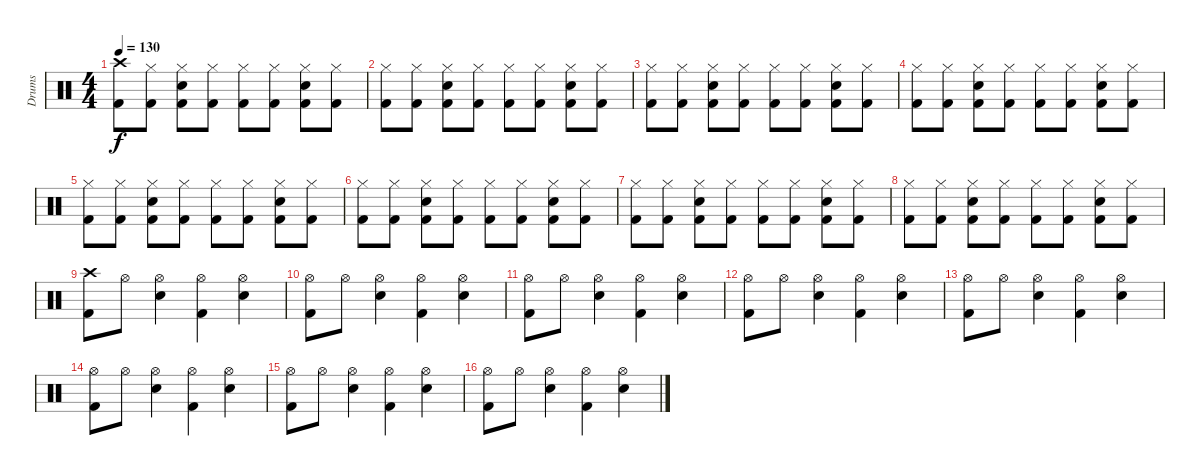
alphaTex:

\track ("Drums" "Drums") {instrument percussion}
\staff {score}
\articulation defaults
\ts (4 4)
\tempo 130
\clef neutral
\ks c
("Crash high (hit)" "Kick (hit) 2").8{dy f} ("Hi-Hat (closed)" "Kick (hit) 2").8 ("Hi-Hat (closed)" "Snare (hit) 2" "Kick (hit) 2").8 ("Hi-Hat (closed)" "Kick (hit) 2").8 ("Hi-Hat (closed)" "Kick (hit) 2").8 ("Hi-Hat (closed)" "Kick (hit) 2").8 ("Hi-Hat (closed)" "Snare (hit) 2" "Kick (hit) 2").8 ("Hi-Hat (closed)" "Kick (hit) 2").8 |
("Hi-Hat (closed)" "Kick (hit) 2").8 ("Hi-Hat (closed)" "Kick (hit) 2").8 ("Hi-Hat (closed)" "Snare (hit) 2" "Kick (hit) 2").8 ("Hi-Hat (closed)" "Kick (hit) 2").8 ("Hi-Hat (closed)" "Kick (hit) 2").8 ("Hi-Hat (closed)" "Kick (hit) 2").8 ("Hi-Hat (closed)" "Snare (hit) 2" "Kick (hit) 2").8 ("Hi-Hat (closed)" "Kick (hit) 2").8 |
("Hi-Hat (closed)" "Kick (hit) 2").8 ("Hi-Hat (closed)" "Kick (hit) 2").8 ("Hi-Hat (closed)" "Snare (hit) 2" "Kick (hit) 2").8 ("Hi-Hat (closed)" "Kick (hit) 2").8 ("Hi-Hat (closed)" "Kick (hit) 2").8 ("Hi-Hat (closed)" "Kick (hit) 2").8 ("Hi-Hat (closed)" "Snare (hit) 2" "Kick (hit) 2").8 ("Hi-Hat (closed)" "Kick (hit) 2").8 |
("Hi-Hat (closed)" "Kick (hit) 2").8 ("Hi-Hat (closed)" "Kick (hit) 2").8 ("Hi-Hat (closed)" "Snare (hit) 2" "Kick (hit) 2").8 ("Hi-Hat (closed)" "Kick (hit) 2").8 ("Hi-Hat (closed)" "Kick (hit) 2").8 ("Hi-Hat (closed)" "Kick (hit) 2").8 ("Hi-Hat (closed)" "Snare (hit) 2" "Kick (hit) 2").8 ("Hi-Hat (closed)" "Kick (hit) 2").8 |
("Hi-Hat (closed)" "Kick (hit) 2").8 ("Hi-Hat (closed)" "Kick (hit) 2").8 ("Hi-Hat (closed)" "Snare (hit) 2" "Kick (hit) 2").8 ("Hi-Hat (closed)" "Kick (hit) 2").8 ("Hi-Hat (closed)" "Kick (hit) 2").8 ("Hi-Hat (closed)" "Kick (hit) 2").8 ("Hi-Hat (closed)" "Snare (hit) 2" "Kick (hit) 2").8 ("Hi-Hat (closed)" "Kick (hit) 2").8 |
("Hi-Hat (closed)" "Kick (hit) 2").8 ("Hi-Hat (closed)" "Kick (hit) 2").8 ("Hi-Hat (closed)" "Snare (hit) 2" "Kick (hit) 2").8 ("Hi-Hat (closed)" "Kick (hit) 2").8 ("Hi-Hat (closed)" "Kick (hit) 2").8 ("Hi-Hat (closed)" "Kick (hit) 2").8 ("Hi-Hat (closed)" "Snare (hit) 2" "Kick (hit) 2").8 ("Hi-Hat (closed)" "Kick (hit) 2").8 |
("Hi-Hat (closed)" "Kick (hit) 2").8 ("Hi-Hat (closed)" "Kick (hit) 2").8 ("Hi-Hat (closed)" "Snare (hit) 2" "Kick (hit) 2").8 ("Hi-Hat (closed)" "Kick (hit) 2").8 ("Hi-Hat (closed)" "Kick (hit) 2").8 ("Hi-Hat (closed)" "Kick (hit) 2").8 ("Hi-Hat (closed)" "Snare (hit) 2" "Kick (hit) 2").8 ("Hi-Hat (closed)" "Kick (hit) 2").8 |
("Hi-Hat (closed)" "Kick (hit) 2").8 ("Hi-Hat (closed)" "Kick (hit) 2").8 ("Hi-Hat (closed)" "Snare (hit) 2" "Kick (hit) 2").8 ("Hi-Hat (closed)" "Kick (hit) 2").8 ("Hi-Hat (closed)" "Kick (hit) 2").8 ("Hi-Hat (closed)" "Kick (hit) 2").8 ("Hi-Hat (closed)" "Snare (hit) 2" "Kick (hit) 2").8 ("Hi-Hat (closed)" "Kick (hit) 2").8 |
("Crash high (hit)" "Kick (hit) 2").8 "Hi-Hat (open)".8 ("Hi-Hat (open)" "Snare (hit) 2").4 ("Hi-Hat (open)" "Kick (hit) 2").4 ("Hi-Hat (open)" "Snare (hit) 2").4 |
("Hi-Hat (open)" "Kick (hit) 2").8 "Hi-Hat (open)".8 ("Hi-Hat (open)" "Snare (hit) 2").4 ("Hi-Hat (open)" "Kick (hit) 2").4 ("Hi-Hat (open)" "Snare (hit) 2").4 |
("Hi-Hat (open)" "Kick (hit) 2").8 "Hi-Hat (open)".8 ("Hi-Hat (open)" "Snare (hit) 2").4 ("Hi-Hat (open)" "Kick (hit) 2").4 ("Hi-Hat (open)" "Snare (hit) 2").4 |
("Hi-Hat (open)" "Kick (hit) 2").8 "Hi-Hat (open)".8 ("Hi-Hat (open)" "Snare (hit) 2").4 ("Hi-Hat (open)" "Kick (hit) 2").4 ("Hi-Hat (open)" "Snare (hit) 2").4 |
("Hi-Hat (open)" "Kick (hit) 2").8 "Hi-Hat (open)".8 ("Hi-Hat (open)" "Snare (hit) 2").4 ("Hi-Hat (open)" "Kick (hit) 2").4 ("Hi-Hat (open)" "Snare (hit) 2").4 |
("Hi-Hat (open)" "Kick (hit) 2").8 "Hi-Hat (open)".8 ("Hi-Hat (open)" "Snare (hit) 2").4 ("Hi-Hat (open)" "Kick (hit) 2").4 ("Hi-Hat (open)" "Snare (hit) 2").4 |
("Hi-Hat (open)" "Kick (hit) 2").8 "Hi-Hat (open)".8 ("Hi-Hat (open)" "Snare (hit) 2").4 ("Hi-Hat (open)" "Kick (hit) 2").4 ("Hi-Hat (open)" "Snare (hit) 2").4 |
("Hi-Hat (open)" "Kick (hit) 2").8 "Hi-Hat (open)".8 ("Hi-Hat (open)" "Snare (hit) 2").4 ("Hi-Hat (open)" "Kick (hit) 2").4 ("Hi-Hat (open)" "Snare (hit) 2").4
